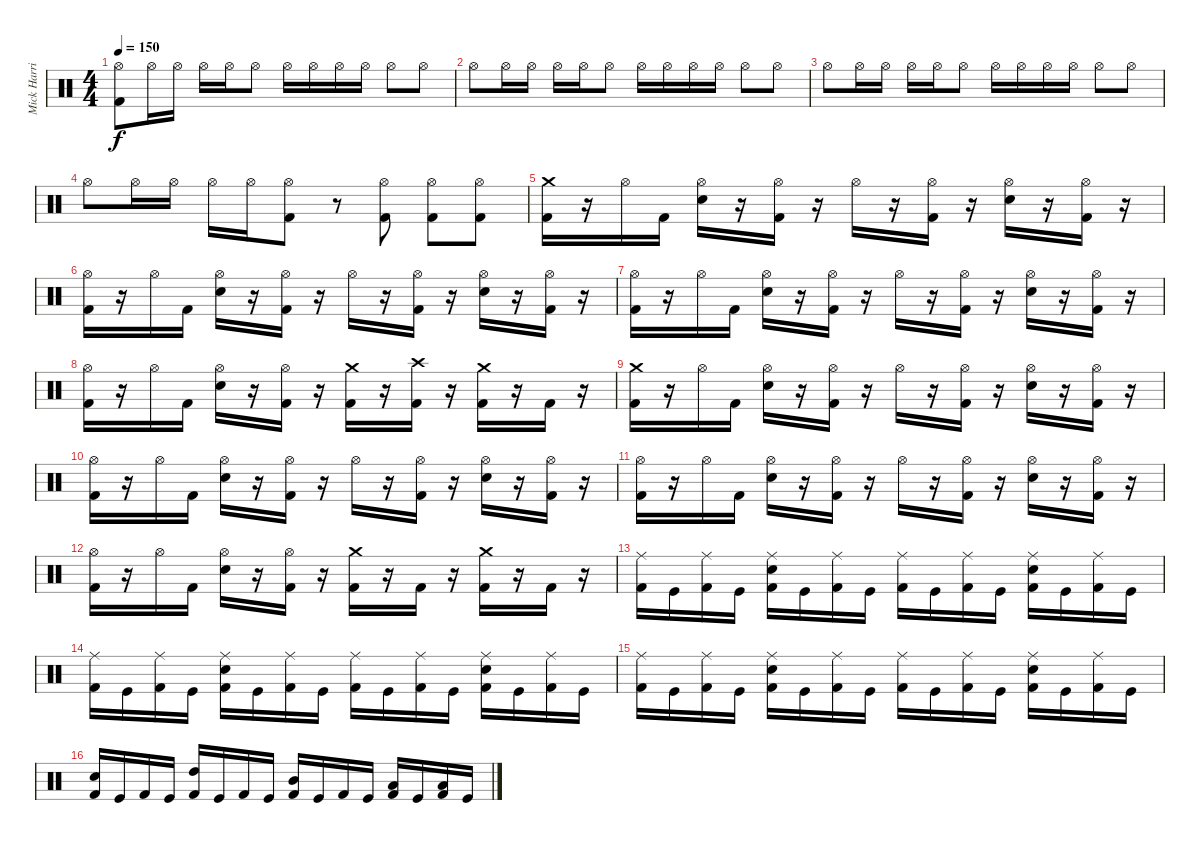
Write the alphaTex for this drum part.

\track ("Mick Harris (Drums)" "Mick Harri") {instrument percussion}
\staff {score}
\articulation defaults
\ts (4 4)
\tempo 150
\clef neutral
\ks c
("Kick (hit) 2" "Hi-Hat (open)").8{dy f volume 16} "Hi-Hat (open)".16 "Hi-Hat (open)".16 "Hi-Hat (open)".16 "Hi-Hat (open)".16 "Hi-Hat (open)".8 "Hi-Hat (open)".16 "Hi-Hat (open)".16 "Hi-Hat (open)".16 "Hi-Hat (open)".16 "Hi-Hat (open)".8 "Hi-Hat (open)".8 |
"Hi-Hat (open)".8 "Hi-Hat (open)".16 "Hi-Hat (open)".16 "Hi-Hat (open)".16 "Hi-Hat (open)".16 "Hi-Hat (open)".8 "Hi-Hat (open)".16 "Hi-Hat (open)".16 "Hi-Hat (open)".16 "Hi-Hat (open)".16 "Hi-Hat (open)".8 "Hi-Hat (open)".8 |
"Hi-Hat (open)".8 "Hi-Hat (open)".16 "Hi-Hat (open)".16 "Hi-Hat (open)".16 "Hi-Hat (open)".16 "Hi-Hat (open)".8 "Hi-Hat (open)".16 "Hi-Hat (open)".16 "Hi-Hat (open)".16 "Hi-Hat (open)".16 "Hi-Hat (open)".8 "Hi-Hat (open)".8 |
"Hi-Hat (open)".8 "Hi-Hat (open)".16 "Hi-Hat (open)".16 "Hi-Hat (open)".16 "Hi-Hat (open)".16 ("Kick (hit) 2" "Hi-Hat (open)").8 r.8 ("Kick (hit) 2" "Hi-Hat (open)").8 ("Kick (hit) 2" "Hi-Hat (open)").8 ("Kick (hit) 2" "Hi-Hat (open)").8 |
("Kick (hit) 2" "Crash medium (hit)").16 r.16 "Hi-Hat (open)".16 "Kick (hit) 2".16 ("Electric Snare (hit)" "Hi-Hat (open)").16 r.16 ("Kick (hit) 2" "Hi-Hat (open)").16 r.16 "Hi-Hat (open)".16 r.16 ("Kick (hit) 2" "Hi-Hat (open)").16 r.16 ("Electric Snare (hit)" "Hi-Hat (open)").16 r.16 ("Kick (hit) 2" "Hi-Hat (open)").16 r.16 |
("Kick (hit) 2" "Hi-Hat (open)").16 r.16 "Hi-Hat (open)".16 "Kick (hit) 2".16 ("Electric Snare (hit)" "Hi-Hat (open)").16 r.16 ("Kick (hit) 2" "Hi-Hat (open)").16 r.16 "Hi-Hat (open)".16 r.16 ("Kick (hit) 2" "Hi-Hat (open)").16 r.16 ("Electric Snare (hit)" "Hi-Hat (open)").16 r.16 ("Kick (hit) 2" "Hi-Hat (open)").16 r.16 |
("Kick (hit) 2" "Hi-Hat (open)").16 r.16 "Hi-Hat (open)".16 "Kick (hit) 2".16 ("Electric Snare (hit)" "Hi-Hat (open)").16 r.16 ("Kick (hit) 2" "Hi-Hat (open)").16 r.16 "Hi-Hat (open)".16 r.16 ("Kick (hit) 2" "Hi-Hat (open)").16 r.16 ("Electric Snare (hit)" "Hi-Hat (open)").16 r.16 ("Kick (hit) 2" "Hi-Hat (open)").16 r.16 |
("Kick (hit) 2" "Hi-Hat (open)").16 r.16 "Hi-Hat (open)".16 "Kick (hit) 2".16 ("Electric Snare (hit)" "Hi-Hat (open)").16 r.16 ("Kick (hit) 2" "Hi-Hat (open)").16 r.16 ("Kick (hit) 2" "Crash medium (hit)").16 r.16 ("Kick (hit) 2" "Crash high (hit)").16 r.16 ("Kick (hit) 2" "Crash medium (hit)").16 r.16 "Kick (hit) 2".16 r.16 |
("Kick (hit) 2" "Crash medium (hit)").16 r.16 "Hi-Hat (open)".16 "Kick (hit) 2".16 ("Electric Snare (hit)" "Hi-Hat (open)").16 r.16 ("Kick (hit) 2" "Hi-Hat (open)").16 r.16 "Hi-Hat (open)".16 r.16 ("Kick (hit) 2" "Hi-Hat (open)").16 r.16 ("Electric Snare (hit)" "Hi-Hat (open)").16 r.16 ("Kick (hit) 2" "Hi-Hat (open)").16 r.16 |
("Kick (hit) 2" "Hi-Hat (open)").16 r.16 "Hi-Hat (open)".16 "Kick (hit) 2".16 ("Electric Snare (hit)" "Hi-Hat (open)").16 r.16 ("Kick (hit) 2" "Hi-Hat (open)").16 r.16 "Hi-Hat (open)".16 r.16 ("Kick (hit) 2" "Hi-Hat (open)").16 r.16 ("Electric Snare (hit)" "Hi-Hat (open)").16 r.16 ("Kick (hit) 2" "Hi-Hat (open)").16 r.16 |
("Kick (hit) 2" "Hi-Hat (open)").16 r.16 "Hi-Hat (open)".16 "Kick (hit) 2".16 ("Electric Snare (hit)" "Hi-Hat (open)").16 r.16 ("Kick (hit) 2" "Hi-Hat (open)").16 r.16 "Hi-Hat (open)".16 r.16 ("Kick (hit) 2" "Hi-Hat (open)").16 r.16 ("Electric Snare (hit)" "Hi-Hat (open)").16 r.16 ("Kick (hit) 2" "Hi-Hat (open)").16 r.16 |
("Kick (hit) 2" "Hi-Hat (open)").16 r.16 "Hi-Hat (open)".16 "Kick (hit) 2".16 ("Electric Snare (hit)" "Hi-Hat (open)").16 r.16 ("Kick (hit) 2" "Hi-Hat (open)").16 r.16 ("Kick (hit) 2" "Crash medium (hit)").16 r.16 "Kick (hit) 2".16 r.16 ("Kick (hit) 2" "Crash medium (hit)").16 r.16 "Kick (hit) 2".16 r.16 |
("Kick (hit) 2" "Ride (middle)").16 "Kick (hit)".16 ("Kick (hit) 2" "Ride (middle)").16 "Kick (hit)".16 ("Kick (hit) 2" "Ride (middle)" "Electric Snare (hit)").16 "Kick (hit)".16 ("Kick (hit) 2" "Ride (middle)").16 "Kick (hit)".16 ("Kick (hit) 2" "Ride (middle)").16 "Kick (hit)".16 ("Kick (hit) 2" "Ride (middle)").16 "Kick (hit)".16 ("Kick (hit) 2" "Ride (middle)" "Electric Snare (hit)").16 "Kick (hit)".16 ("Kick (hit) 2" "Ride (middle)").16 "Kick (hit)".16 |
("Kick (hit) 2" "Ride (middle)").16 "Kick (hit)".16 ("Kick (hit) 2" "Ride (middle)").16 "Kick (hit)".16 ("Kick (hit) 2" "Ride (middle)" "Electric Snare (hit)").16 "Kick (hit)".16 ("Kick (hit) 2" "Ride (middle)").16 "Kick (hit)".16 ("Kick (hit) 2" "Ride (middle)").16 "Kick (hit)".16 ("Kick (hit) 2" "Ride (middle)").16 "Kick (hit)".16 ("Kick (hit) 2" "Ride (middle)" "Electric Snare (hit)").16 "Kick (hit)".16 ("Kick (hit) 2" "Ride (middle)").16 "Kick (hit)".16 |
("Kick (hit) 2" "Ride (middle)").16 "Kick (hit)".16 ("Kick (hit) 2" "Ride (middle)").16 "Kick (hit)".16 ("Kick (hit) 2" "Ride (middle)" "Electric Snare (hit)").16 "Kick (hit)".16 ("Kick (hit) 2" "Ride (middle)").16 "Kick (hit)".16 ("Kick (hit) 2" "Ride (middle)").16 "Kick (hit)".16 ("Kick (hit) 2" "Ride (middle)").16 "Kick (hit)".16 ("Kick (hit) 2" "Ride (middle)" "Electric Snare (hit)").16 "Kick (hit)".16 ("Kick (hit) 2" "Ride (middle)").16 "Kick (hit)".16 |
("Kick (hit) 2" "Electric Snare (hit)").16 "Kick (hit)".16 "Kick (hit) 2".16 "Kick (hit)".16 ("Kick (hit) 2" "High Tom (hit)").16 "Kick (hit)".16 "Kick (hit) 2".16 "Kick (hit)".16 ("Kick (hit) 2" "Mid Tom (hit)").16 "Kick (hit)".16 "Kick (hit) 2".16 "Kick (hit)".16 ("Kick (hit) 2" "Low Tom (hit)").16 "Kick (hit)".16 ("Kick (hit) 2" "Low Tom (hit)").16 "Kick (hit)".16
